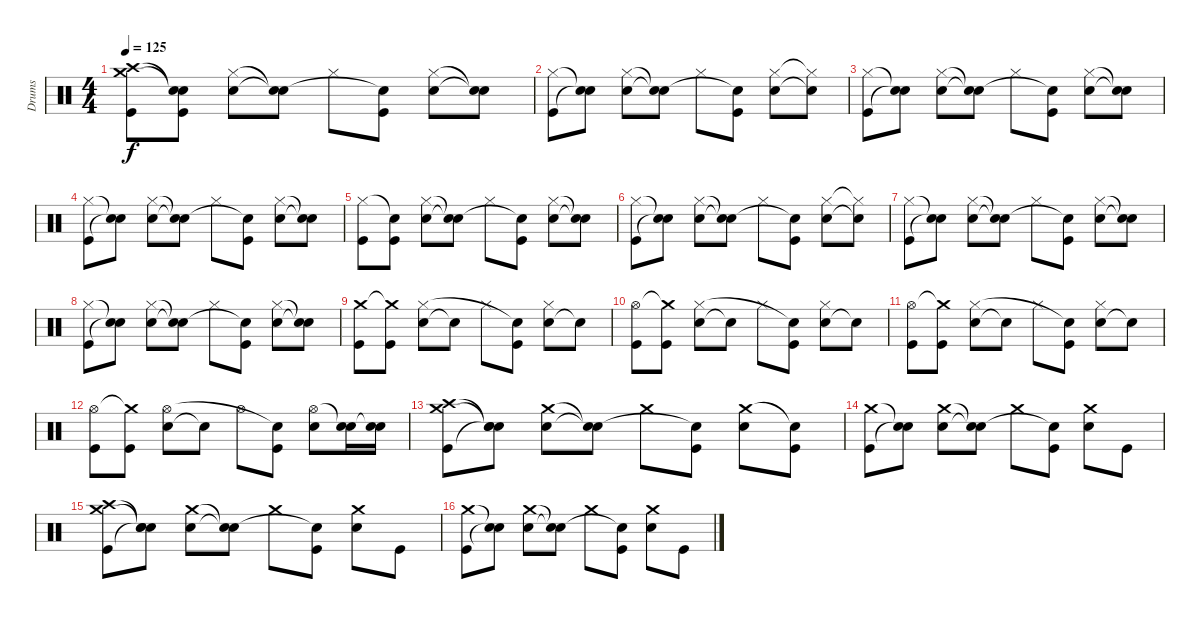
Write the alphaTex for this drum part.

\track ("Drums" "Drums") {instrument percussion}
\staff {score}
\articulation defaults
\ts (4 4)
\tempo 125
\clef neutral
\ks c
("Kick (hit)" "Crash medium (hit)" "Crash high (hit)").8{dy f} ("Kick (hit)" "Snare (hit)"{t} "Snare (hit)"{t}).8 ("Snare (hit) 2" "Hi-Hat (closed)").8 ("Snare (hit)"{t} "Snare (hit)"{t}).8 "Hi-Hat (closed)".8 ("Kick (hit)" "Snare (hit)"{t}).8 ("Snare (hit) 2" "Hi-Hat (closed)").8 ("Snare (hit)"{t} "Snare (hit)"{t}).8 |
("Kick (hit)" "Hi-Hat (closed)").8 ("Snare (hit)"{t} "Snare (hit)"{t}).8 ("Snare (hit) 2" "Hi-Hat (closed)").8 ("Snare (hit)"{t} "Snare (hit)"{t}).8 "Hi-Hat (closed)".8 ("Kick (hit)" "Snare (hit)"{t}).8 ("Snare (hit) 2" "Hi-Hat (closed)").8 ("Snare (hit)"{t} "Hi-Hat (closed)"{t}).8 |
("Kick (hit)" "Hi-Hat (closed)").8 ("Snare (hit)"{t} "Snare (hit)"{t}).8 ("Snare (hit) 2" "Hi-Hat (closed)").8 ("Snare (hit)"{t} "Snare (hit)"{t}).8 "Hi-Hat (closed)".8 ("Kick (hit)" "Snare (hit)"{t}).8 ("Snare (hit) 2" "Hi-Hat (closed)").8 ("Snare (hit)"{t} "Snare (hit)"{t}).8 |
("Kick (hit)" "Hi-Hat (closed)").8 ("Snare (hit)"{t} "Snare (hit)"{t}).8 ("Snare (hit) 2" "Hi-Hat (closed)").8 ("Snare (hit)"{t} "Snare (hit)"{t}).8 "Hi-Hat (closed)".8 ("Kick (hit)" "Snare (hit)"{t}).8 ("Snare (hit) 2" "Hi-Hat (closed)").8 ("Snare (hit)"{t} "Snare (hit)"{t}).8 |
("Kick (hit)" "Hi-Hat (closed)").8 ("Kick (hit)" "Snare (hit)"{t}).8 ("Snare (hit) 2" "Hi-Hat (closed)").8 ("Snare (hit)"{t} "Snare (hit)"{t}).8 "Hi-Hat (closed)".8 ("Kick (hit)" "Snare (hit)"{t}).8 ("Snare (hit) 2" "Hi-Hat (closed)").8 ("Snare (hit)"{t} "Snare (hit)"{t}).8 |
("Kick (hit)" "Hi-Hat (closed)").8 ("Snare (hit)"{t} "Snare (hit)"{t}).8 ("Snare (hit) 2" "Hi-Hat (closed)").8 ("Snare (hit)"{t} "Snare (hit)"{t}).8 "Hi-Hat (closed)".8 ("Kick (hit)" "Snare (hit)"{t}).8 ("Snare (hit) 2" "Hi-Hat (closed)").8 ("Snare (hit)"{t} "Hi-Hat (closed)"{t}).8 |
("Kick (hit)" "Hi-Hat (closed)").8 ("Snare (hit)"{t} "Snare (hit)"{t}).8 ("Snare (hit) 2" "Hi-Hat (closed)").8 ("Snare (hit)"{t} "Snare (hit)"{t}).8 "Hi-Hat (closed)".8 ("Kick (hit)" "Snare (hit)"{t}).8 ("Snare (hit) 2" "Hi-Hat (closed)").8 ("Snare (hit)"{t} "Snare (hit)"{t}).8 |
("Kick (hit)" "Hi-Hat (closed)").8 ("Snare (hit)"{t} "Snare (hit)"{t}).8 ("Snare (hit) 2" "Hi-Hat (closed)").8 ("Snare (hit)"{t} "Snare (hit)"{t}).8 "Hi-Hat (closed)".8 ("Kick (hit)" "Snare (hit)"{t}).8 ("Snare (hit) 2" "Hi-Hat (closed)").8 ("Snare (hit)"{t} "Snare (hit)"{t}).8 |
("Kick (hit)" "Crash medium (hit)").8 ("Kick (hit)" "Crash medium (hit)"{t}).8 ("Snare (hit) 2" "Hi-Hat (closed)").8 "Snare (hit)"{t}.8 "Hi-Hat (closed)".8 ("Kick (hit)" "Snare (hit)"{t}).8 ("Snare (hit) 2" "Hi-Hat (closed)").8 "Snare (hit)"{t}.8 |
("Kick (hit)" "Hi-Hat (open)").8 ("Kick (hit)" "Crash medium (hit)"{t}).8 ("Snare (hit) 2" "Hi-Hat (closed)").8 "Snare (hit)"{t}.8 "Hi-Hat (closed)".8 ("Kick (hit)" "Snare (hit)"{t}).8 ("Snare (hit) 2" "Hi-Hat (closed)").8 "Snare (hit)"{t}.8 |
("Kick (hit)" "Hi-Hat (open)").8 ("Kick (hit)" "Crash medium (hit)"{t}).8 ("Snare (hit) 2" "Hi-Hat (closed)").8 "Snare (hit)"{t}.8 "Hi-Hat (closed)".8 ("Kick (hit)" "Snare (hit)"{t}).8 ("Snare (hit) 2" "Hi-Hat (closed)").8 "Snare (hit)"{t}.8 |
("Kick (hit)" "Hi-Hat (open)").8 ("Kick (hit)" "Crash medium (hit)"{t}).8 ("Snare (hit) 2" "Hi-Hat (open)").8 "Snare (hit)"{t}.8 "Hi-Hat (open)".8 ("Kick (hit)" "Snare (hit)"{t}).8 ("Snare (hit) 2" "Hi-Hat (open)").8 ("Snare (hit) 2" "Snare (hit)"{t}).16 ("Snare (hit) 2" "Snare (hit)"{t}).16 |
("Kick (hit)" "Crash medium (hit)" "Crash high (hit)").8 ("Snare (hit)"{t} "Snare (hit)"{t} "Snare (hit)"{t}).8 ("Snare (hit) 2" "Crash medium (hit)").8 ("Snare (hit)"{t} "Snare (hit)"{t}).8 "Crash medium (hit)".8 ("Kick (hit)" "Snare (hit)"{t}).8 ("Snare (hit) 2" "Crash medium (hit)").8 ("Kick (hit)" "Snare (hit)"{t}).8 |
("Kick (hit)" "Crash medium (hit)").8 ("Snare (hit)"{t} "Snare (hit)"{t}).8 ("Snare (hit) 2" "Crash medium (hit)").8 ("Snare (hit)"{t} "Snare (hit)"{t}).8 "Crash medium (hit)".8 ("Kick (hit)" "Snare (hit)"{t}).8 ("Snare (hit) 2" "Crash medium (hit)").8 "Kick (hit)".8 |
("Kick (hit)" "Crash medium (hit)" "Crash high (hit)").8 ("Snare (hit)"{t} "Snare (hit)"{t} "Snare (hit)"{t}).8 ("Snare (hit) 2" "Crash medium (hit)").8 ("Snare (hit)"{t} "Snare (hit)"{t}).8 "Crash medium (hit)".8 ("Kick (hit)" "Snare (hit)"{t}).8 ("Snare (hit) 2" "Crash medium (hit)").8 "Kick (hit)".8 |
("Kick (hit)" "Crash medium (hit)").8 ("Snare (hit)"{t} "Snare (hit)"{t}).8 ("Snare (hit) 2" "Crash medium (hit)").8 ("Snare (hit)"{t} "Snare (hit)"{t}).8 "Crash medium (hit)".8 ("Kick (hit)" "Snare (hit)"{t}).8 ("Snare (hit) 2" "Crash medium (hit)").8 "Kick (hit)".8
